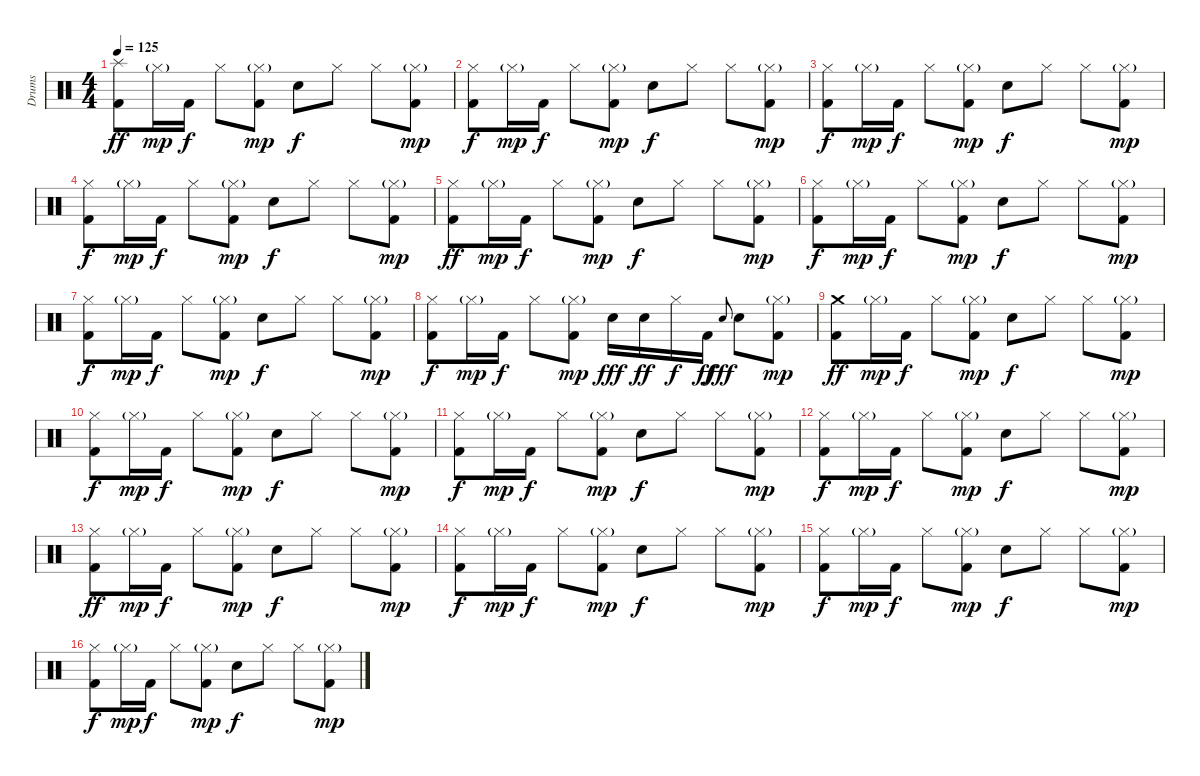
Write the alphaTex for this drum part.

\track ("Drums" "Drums") {instrument percussion}
\staff {score}
\articulation defaults
\ts (4 4)
\tempo 125
\clef neutral
\ks c
("Splash (hit)" "Kick (hit) 2").8{dy ff} "Hi-Hat (closed)"{g}.16{dy mp} "Kick (hit) 2".16{dy f} "Hi-Hat (closed)".8 ("Hi-Hat (closed)"{g} "Kick (hit) 2").8{dy mp} "Snare (hit) 2".8{dy f} "Hi-Hat (closed)".8 "Hi-Hat (closed)".8 ("Hi-Hat (closed)"{g} "Kick (hit) 2").8{dy mp} |
("Hi-Hat (closed)" "Kick (hit) 2").8{dy f} "Hi-Hat (closed)"{g}.16{dy mp} "Kick (hit) 2".16{dy f} "Hi-Hat (closed)".8 ("Hi-Hat (closed)"{g} "Kick (hit) 2").8{dy mp} "Snare (hit) 2".8{dy f} "Hi-Hat (closed)".8 "Hi-Hat (closed)".8 ("Hi-Hat (closed)"{g} "Kick (hit) 2").8{dy mp} |
("Hi-Hat (closed)" "Kick (hit) 2").8{dy f} "Hi-Hat (closed)"{g}.16{dy mp} "Kick (hit) 2".16{dy f} "Hi-Hat (closed)".8 ("Hi-Hat (closed)"{g} "Kick (hit) 2").8{dy mp} "Snare (hit) 2".8{dy f} "Hi-Hat (closed)".8 "Hi-Hat (closed)".8 ("Hi-Hat (closed)"{g} "Kick (hit) 2").8{dy mp} |
("Hi-Hat (closed)" "Kick (hit) 2").8{dy f} "Hi-Hat (closed)"{g}.16{dy mp} "Kick (hit) 2".16{dy f} "Hi-Hat (closed)".8 ("Hi-Hat (closed)"{g} "Kick (hit) 2").8{dy mp} "Snare (hit) 2".8{dy f} "Hi-Hat (closed)".8 "Hi-Hat (closed)".8 ("Hi-Hat (closed)"{g} "Kick (hit) 2").8{dy mp} |
("Hi-Hat (closed)" "Kick (hit) 2").8{dy ff} "Hi-Hat (closed)"{g}.16{dy mp} "Kick (hit) 2".16{dy f} "Hi-Hat (closed)".8 ("Hi-Hat (closed)"{g} "Kick (hit) 2").8{dy mp} "Snare (hit) 2".8{dy f} "Hi-Hat (closed)".8 "Hi-Hat (closed)".8 ("Hi-Hat (closed)"{g} "Kick (hit) 2").8{dy mp} |
("Hi-Hat (closed)" "Kick (hit) 2").8{dy f} "Hi-Hat (closed)"{g}.16{dy mp} "Kick (hit) 2".16{dy f} "Hi-Hat (closed)".8 ("Hi-Hat (closed)"{g} "Kick (hit) 2").8{dy mp} "Snare (hit) 2".8{dy f} "Hi-Hat (closed)".8 "Hi-Hat (closed)".8 ("Hi-Hat (closed)"{g} "Kick (hit) 2").8{dy mp} |
("Hi-Hat (closed)" "Kick (hit) 2").8{dy f} "Hi-Hat (closed)"{g}.16{dy mp} "Kick (hit) 2".16{dy f} "Hi-Hat (closed)".8 ("Hi-Hat (closed)"{g} "Kick (hit) 2").8{dy mp} "Snare (hit) 2".8{dy f} "Hi-Hat (closed)".8 "Hi-Hat (closed)".8 ("Hi-Hat (closed)"{g} "Kick (hit) 2").8{dy mp} |
("Hi-Hat (closed)" "Kick (hit) 2").8{dy f} "Hi-Hat (closed)"{g}.16{dy mp} "Kick (hit) 2".16{dy f} "Hi-Hat (closed)".8 ("Hi-Hat (closed)"{g} "Kick (hit) 2").8{dy mp} "Snare (hit) 2".16{dy fff} "Snare (hit) 2".16{dy ff} "Hi-Hat (closed)".16{dy f} "Kick (hit) 2".16{dy ff} "Snare (hit) 2".8{gr onbeat dy fff} "Snare (hit) 2".8 ("Hi-Hat (closed)"{g} "Kick (hit) 2").8{dy mp} |
("Crash medium (hit)" "Kick (hit) 2").8{dy ff} "Hi-Hat (closed)"{g}.16{dy mp} "Kick (hit) 2".16{dy f} "Hi-Hat (closed)".8 ("Hi-Hat (closed)"{g} "Kick (hit) 2").8{dy mp} "Snare (hit) 2".8{dy f} "Hi-Hat (closed)".8 "Hi-Hat (closed)".8 ("Hi-Hat (closed)"{g} "Kick (hit) 2").8{dy mp} |
("Hi-Hat (closed)" "Kick (hit) 2").8{dy f} "Hi-Hat (closed)"{g}.16{dy mp} "Kick (hit) 2".16{dy f} "Hi-Hat (closed)".8 ("Hi-Hat (closed)"{g} "Kick (hit) 2").8{dy mp} "Snare (hit) 2".8{dy f} "Hi-Hat (closed)".8 "Hi-Hat (closed)".8 ("Hi-Hat (closed)"{g} "Kick (hit) 2").8{dy mp} |
("Hi-Hat (closed)" "Kick (hit) 2").8{dy f} "Hi-Hat (closed)"{g}.16{dy mp} "Kick (hit) 2".16{dy f} "Hi-Hat (closed)".8 ("Hi-Hat (closed)"{g} "Kick (hit) 2").8{dy mp} "Snare (hit) 2".8{dy f} "Hi-Hat (closed)".8 "Hi-Hat (closed)".8 ("Hi-Hat (closed)"{g} "Kick (hit) 2").8{dy mp} |
("Hi-Hat (closed)" "Kick (hit) 2").8{dy f} "Hi-Hat (closed)"{g}.16{dy mp} "Kick (hit) 2".16{dy f} "Hi-Hat (closed)".8 ("Hi-Hat (closed)"{g} "Kick (hit) 2").8{dy mp} "Snare (hit) 2".8{dy f} "Hi-Hat (closed)".8 "Hi-Hat (closed)".8 ("Hi-Hat (closed)"{g} "Kick (hit) 2").8{dy mp} |
("Hi-Hat (closed)" "Kick (hit) 2").8{dy ff} "Hi-Hat (closed)"{g}.16{dy mp} "Kick (hit) 2".16{dy f} "Hi-Hat (closed)".8 ("Hi-Hat (closed)"{g} "Kick (hit) 2").8{dy mp} "Snare (hit) 2".8{dy f} "Hi-Hat (closed)".8 "Hi-Hat (closed)".8 ("Hi-Hat (closed)"{g} "Kick (hit) 2").8{dy mp} |
("Hi-Hat (closed)" "Kick (hit) 2").8{dy f} "Hi-Hat (closed)"{g}.16{dy mp} "Kick (hit) 2".16{dy f} "Hi-Hat (closed)".8 ("Hi-Hat (closed)"{g} "Kick (hit) 2").8{dy mp} "Snare (hit) 2".8{dy f} "Hi-Hat (closed)".8 "Hi-Hat (closed)".8 ("Hi-Hat (closed)"{g} "Kick (hit) 2").8{dy mp} |
("Hi-Hat (closed)" "Kick (hit) 2").8{dy f} "Hi-Hat (closed)"{g}.16{dy mp} "Kick (hit) 2".16{dy f} "Hi-Hat (closed)".8 ("Hi-Hat (closed)"{g} "Kick (hit) 2").8{dy mp} "Snare (hit) 2".8{dy f} "Hi-Hat (closed)".8 "Hi-Hat (closed)".8 ("Hi-Hat (closed)"{g} "Kick (hit) 2").8{dy mp} |
("Hi-Hat (closed)" "Kick (hit) 2").8{dy f} "Hi-Hat (closed)"{g}.16{dy mp} "Kick (hit) 2".16{dy f} "Hi-Hat (closed)".8 ("Hi-Hat (closed)"{g} "Kick (hit) 2").8{dy mp} "Snare (hit) 2".8{dy f} "Hi-Hat (closed)".8 "Hi-Hat (closed)".8 ("Hi-Hat (closed)"{g} "Kick (hit) 2").8{dy mp}
